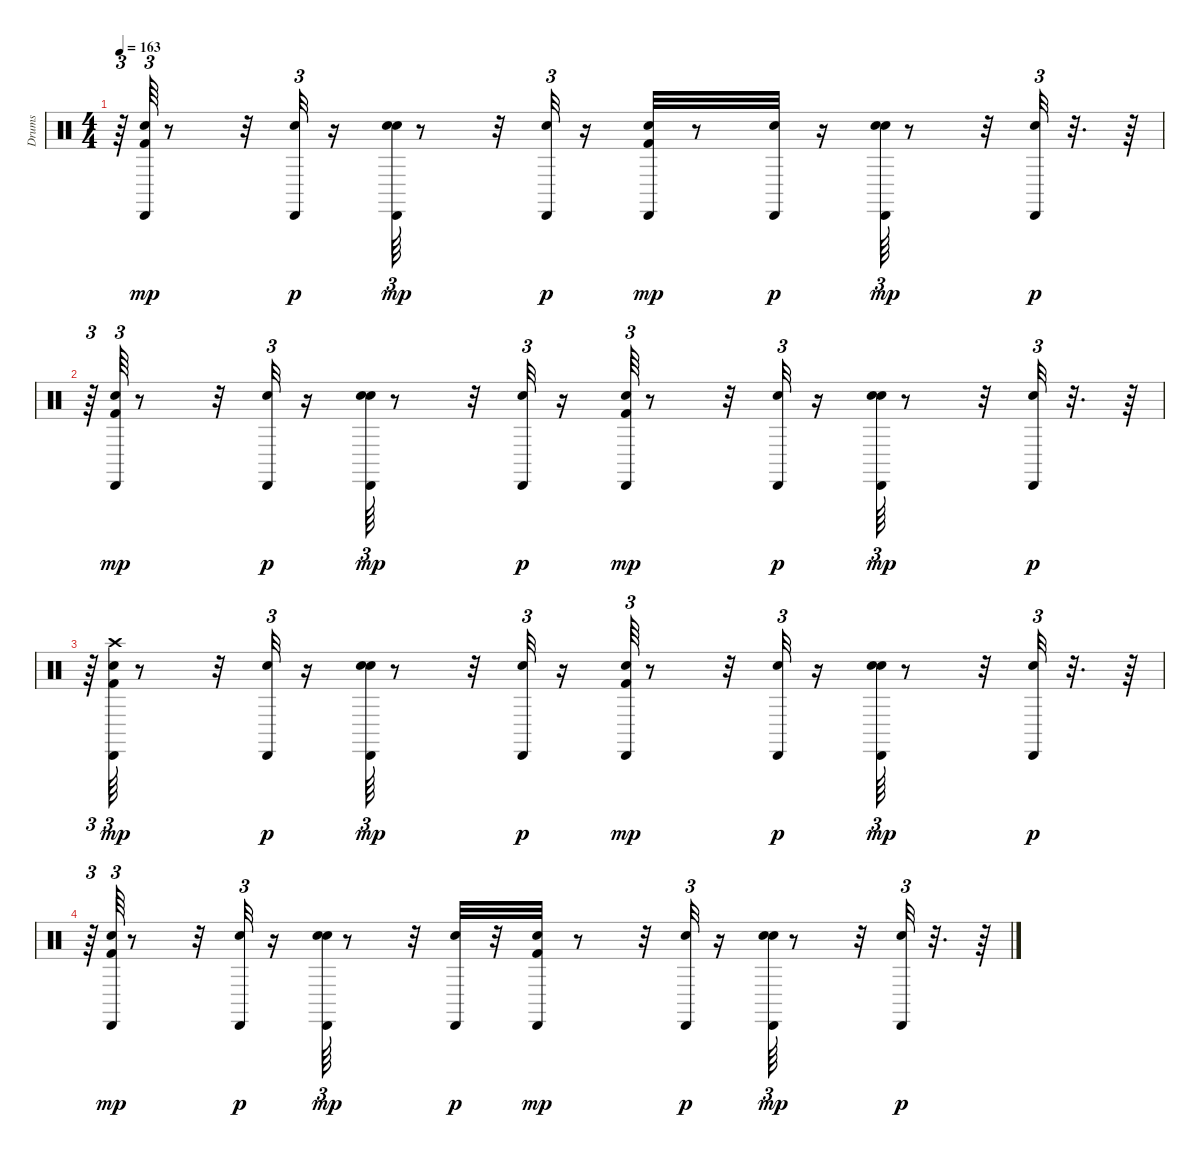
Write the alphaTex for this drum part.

\track ("Drums               " "Drums     ") {instrument percussion}
\staff {score}
\articulation defaults
\ts (4 4)
\tempo 163
\clef neutral
\ks c
r.64{tu (3 2) dy p} ("Kick (hit) 2" "Snare (hit) 2" "Cabasa (hit)").64{tu (3 2) dy mp} r.8 r.32 ("Snare (hit) 2" "Cabasa (hit)").32{tu (3 2) dy p} r.16 ("Snare (hit) 2" "Hand Clap (hit)" "Cabasa (hit)").64{tu (3 2) dy mp} r.8 r.32 ("Snare (hit) 2" "Cabasa (hit)").32{tu (3 2) dy p} r.16 ("Kick (hit) 2" "Snare (hit) 2" "Cabasa (hit)").32{dy mp} r.8 ("Snare (hit) 2" "Cabasa (hit)").32{dy p} r.16 ("Snare (hit) 2" "Hand Clap (hit)" "Cabasa (hit)").64{tu (3 2) dy mp} r.8 r.32 ("Snare (hit) 2" "Cabasa (hit)").32{tu (3 2) dy p} r.32{d} r.64 |
r.64{tu (3 2)} ("Kick (hit) 2" "Snare (hit) 2" "Cabasa (hit)").64{tu (3 2) dy mp} r.8 r.32 ("Snare (hit) 2" "Cabasa (hit)").32{tu (3 2) dy p} r.16 ("Snare (hit) 2" "Hand Clap (hit)" "Cabasa (hit)").64{tu (3 2) dy mp} r.8 r.32 ("Snare (hit) 2" "Cabasa (hit)").32{tu (3 2) dy p} r.16 ("Kick (hit) 2" "Snare (hit) 2" "Cabasa (hit)").64{tu (3 2) dy mp} r.8 r.32 ("Snare (hit) 2" "Cabasa (hit)").32{tu (3 2) dy p} r.16 ("Snare (hit) 2" "Hand Clap (hit)" "Cabasa (hit)").64{tu (3 2) dy mp} r.8 r.32 ("Snare (hit) 2" "Cabasa (hit)").32{tu (3 2) dy p} r.32{d} r.64 |
r.64{tu (3 2)} ("Kick (hit) 2" "Snare (hit) 2" "Crash high (hit)" "Cabasa (hit)").64{tu (3 2) dy mp} r.8 r.32 ("Snare (hit) 2" "Cabasa (hit)").32{tu (3 2) dy p} r.16 ("Snare (hit) 2" "Hand Clap (hit)" "Cabasa (hit)").64{tu (3 2) dy mp} r.8 r.32 ("Snare (hit) 2" "Cabasa (hit)").32{tu (3 2) dy p} r.16 ("Kick (hit) 2" "Snare (hit) 2" "Cabasa (hit)").64{tu (3 2) dy mp} r.8 r.32 ("Snare (hit) 2" "Cabasa (hit)").32{tu (3 2) dy p} r.16 ("Snare (hit) 2" "Hand Clap (hit)" "Cabasa (hit)").64{tu (3 2) dy mp} r.8 r.32 ("Snare (hit) 2" "Cabasa (hit)").32{tu (3 2) dy p} r.32{d} r.64 |
r.64{tu (3 2)} ("Kick (hit) 2" "Snare (hit) 2" "Cabasa (hit)").64{tu (3 2) dy mp} r.8 r.32 ("Snare (hit) 2" "Cabasa (hit)").32{tu (3 2) dy p} r.16 ("Snare (hit) 2" "Hand Clap (hit)" "Cabasa (hit)").64{tu (3 2) dy mp} r.8 r.32 ("Snare (hit) 2" "Cabasa (hit)").32{dy p} r.32 ("Kick (hit) 2" "Snare (hit) 2" "Cabasa (hit)").32{dy mp} r.8 r.32 ("Snare (hit) 2" "Cabasa (hit)").32{tu (3 2) dy p} r.16 ("Snare (hit) 2" "Hand Clap (hit)" "Cabasa (hit)").64{tu (3 2) dy mp} r.8 r.32 ("Snare (hit) 2" "Cabasa (hit)").32{tu (3 2) dy p} r.32{d} r.64
